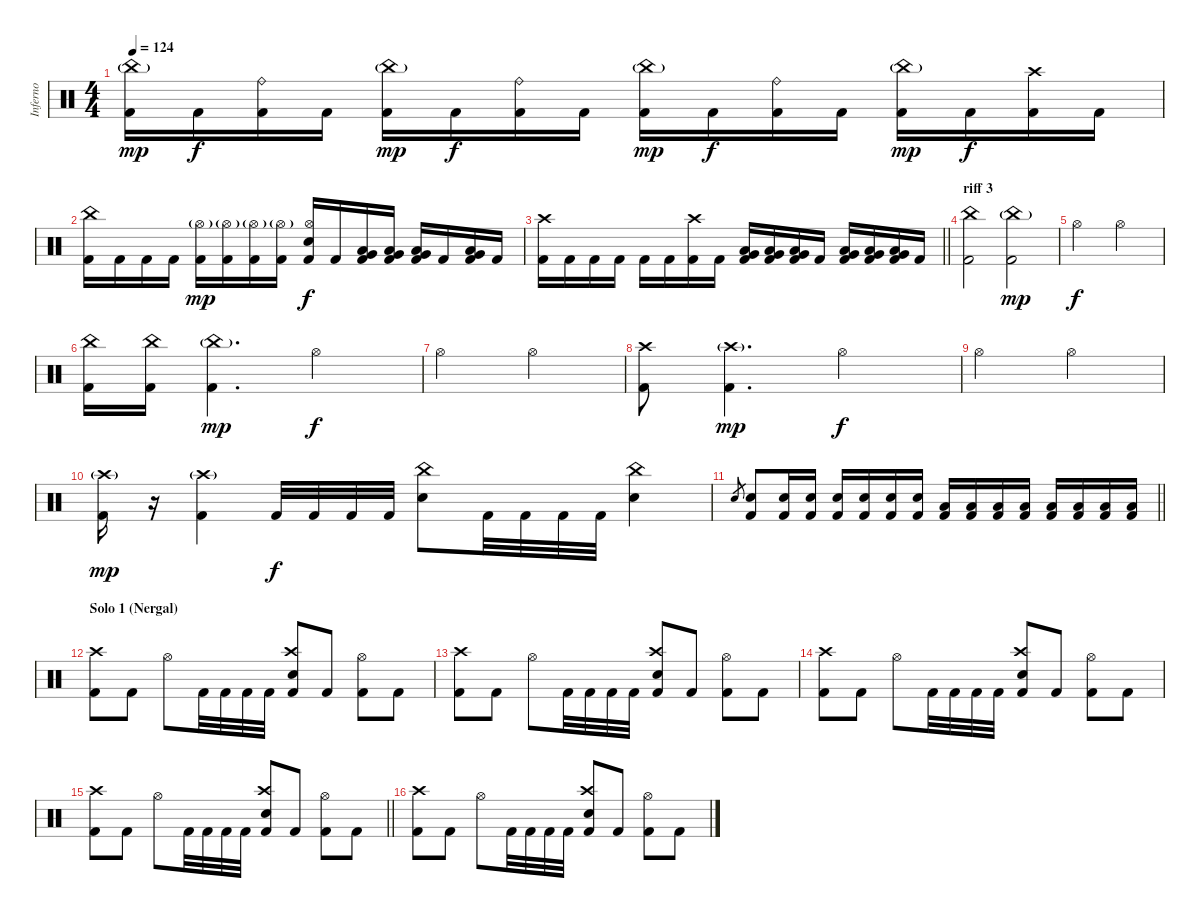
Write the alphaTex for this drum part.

\track ("Inferno" "Inferno") {instrument percussion}
\staff {score}
\articulation defaults
\ts (4 4)
\tempo 124
\clef neutral
\ks c
("China (hit)"{g} "Kick (hit) 2").16{dy mp} "Kick (hit) 2".16{dy f} ("Ride (bell)" "Kick (hit) 2").16 "Kick (hit) 2".16 ("China (hit)"{g} "Kick (hit) 2").16{dy mp} "Kick (hit) 2".16{dy f} ("Ride (bell)" "Kick (hit) 2").16 "Kick (hit) 2".16 ("China (hit)"{g} "Kick (hit) 2").16{dy mp} "Kick (hit) 2".16{dy f} ("Ride (bell)" "Kick (hit) 2").16 "Kick (hit) 2".16 ("China (hit)"{g} "Kick (hit) 2").16{dy mp} "Kick (hit) 2".16{dy f} ("Crash high (hit)" "Kick (hit) 2").16 "Kick (hit) 2".16 |
("China (hit)" "Kick (hit) 2").16 "Kick (hit) 2".16 "Kick (hit) 2".16 "Kick (hit) 2".16 ("Hi-Hat (open)"{g} "Kick (hit) 2").16{dy mp} ("Hi-Hat (open)"{g} "Kick (hit) 2").16 ("Hi-Hat (open)"{g} "Kick (hit) 2").16 ("Hi-Hat (open)"{g} "Kick (hit) 2").16 ("Hi-Hat (open)" "Electric Snare (hit)" "Kick (hit) 2").16{dy f} "Kick (hit) 2".16 ("Very Low Tom (hit)" "Low Tom (hit)" "Kick (hit) 2").16 ("Very Low Tom (hit)" "Low Tom (hit)" "Kick (hit) 2").16 ("Very Low Tom (hit)" "Low Tom (hit)" "Kick (hit) 2").16 "Kick (hit) 2".16 ("Very Low Tom (hit)" "Low Tom (hit)" "Kick (hit) 2").16 "Kick (hit) 2".16 |
\barLineRight lightlight
("Crash high (hit)" "Kick (hit) 2").16 "Kick (hit) 2".16 "Kick (hit) 2".16 "Kick (hit) 2".16 "Kick (hit) 2".16 "Kick (hit) 2".16 ("Crash high (hit)" "Kick (hit) 2").16 "Kick (hit) 2".16 ("Very Low Tom (hit)" "Low Tom (hit)" "Kick (hit) 2").16 ("Very Low Tom (hit)" "Low Tom (hit)" "Kick (hit) 2").16 ("Very Low Tom (hit)" "Low Tom (hit)" "Kick (hit) 2").16 "Kick (hit) 2".16 ("Very Low Tom (hit)" "Low Tom (hit)" "Kick (hit) 2").16 ("Very Low Tom (hit)" "Low Tom (hit)" "Kick (hit) 2").16 ("Very Low Tom (hit)" "Low Tom (hit)" "Kick (hit) 2").16 "Kick (hit) 2".16 |
\section ("" "riff 3")
("China (hit)" "Kick (hit) 2").2 ("China (hit)"{g} "Kick (hit) 2").2{dy mp} |
"Hi-Hat (open)".2{dy f} "Hi-Hat (open)".2 |
("China (hit)" "Kick (hit) 2").16 ("China (hit)" "Kick (hit) 2").16 ("China (hit)"{g} "Kick (hit) 2").4{d dy mp} "Hi-Hat (open)".2{dy f} |
"Hi-Hat (open)".2 "Hi-Hat (open)".2 |
("Crash high (hit)" "Kick (hit) 2").8 ("Crash high (hit)"{g} "Kick (hit) 2").4{d dy mp} "Hi-Hat (open)".2{dy f} |
"Hi-Hat (open)".2 "Hi-Hat (open)".2 |
("Crash high (hit)"{g} "Kick (hit) 2").16{dy mp} r.16 ("Crash high (hit)"{g} "Kick (hit) 2").4 "Kick (hit) 2".32{dy f} "Kick (hit) 2".32 "Kick (hit) 2".32 "Kick (hit) 2".32 ("China (hit)" "Electric Snare (hit)").8 "Kick (hit) 2".32 "Kick (hit) 2".32 "Kick (hit) 2".32 "Kick (hit) 2".32 ("China (hit)" "Electric Snare (hit)").4 |
\barLineRight lightlight "Electric Snare (hit)".8{gr}
("Electric Snare (hit)" "Kick (hit) 2").8 ("Electric Snare (hit)" "Kick (hit) 2").16 ("Electric Snare (hit)" "Kick (hit) 2").16 ("Electric Snare (hit)" "Kick (hit) 2").16 ("Electric Snare (hit)" "Kick (hit) 2").16 ("Electric Snare (hit)" "Kick (hit) 2").16 ("Electric Snare (hit)" "Kick (hit) 2").16 ("Low Tom (hit)" "Kick (hit) 2").16 ("Low Tom (hit)" "Kick (hit) 2").16 ("Low Tom (hit)" "Kick (hit) 2").16 ("Low Tom (hit)" "Kick (hit) 2").16 ("Low Floor Tom (hit)" "Kick (hit) 2").16 ("Low Floor Tom (hit)" "Kick (hit) 2").16 ("Low Floor Tom (hit)" "Kick (hit) 2").16 ("Low Floor Tom (hit)" "Kick (hit) 2").16 |
\section ("" "Solo 1 (Nergal)")
("Crash high (hit)" "Kick (hit) 2").8 "Kick (hit) 2".8 "Hi-Hat (open)".8 "Kick (hit) 2".32 "Kick (hit) 2".32 "Kick (hit) 2".32 "Kick (hit) 2".32 ("Crash high (hit)" "Electric Snare (hit)" "Kick (hit) 2").8 "Kick (hit) 2".8 ("Hi-Hat (open)" "Kick (hit) 2").8 "Kick (hit) 2".8 |
("Crash high (hit)" "Kick (hit) 2").8 "Kick (hit) 2".8 "Hi-Hat (open)".8 "Kick (hit) 2".32 "Kick (hit) 2".32 "Kick (hit) 2".32 "Kick (hit) 2".32 ("Crash high (hit)" "Electric Snare (hit)" "Kick (hit) 2").8 "Kick (hit) 2".8 ("Hi-Hat (open)" "Kick (hit) 2").8 "Kick (hit) 2".8 |
("Crash high (hit)" "Kick (hit) 2").8 "Kick (hit) 2".8 "Hi-Hat (open)".8 "Kick (hit) 2".32 "Kick (hit) 2".32 "Kick (hit) 2".32 "Kick (hit) 2".32 ("Crash high (hit)" "Electric Snare (hit)" "Kick (hit) 2").8 "Kick (hit) 2".8 ("Hi-Hat (open)" "Kick (hit) 2").8 "Kick (hit) 2".8 |
\barLineRight lightlight
("Crash high (hit)" "Kick (hit) 2").8 "Kick (hit) 2".8 "Hi-Hat (open)".8 "Kick (hit) 2".32 "Kick (hit) 2".32 "Kick (hit) 2".32 "Kick (hit) 2".32 ("Crash high (hit)" "Electric Snare (hit)" "Kick (hit) 2").8 "Kick (hit) 2".8 ("Hi-Hat (open)" "Kick (hit) 2").8 "Kick (hit) 2".8 |
("Crash high (hit)" "Kick (hit) 2").8 "Kick (hit) 2".8 "Hi-Hat (open)".8 "Kick (hit) 2".32 "Kick (hit) 2".32 "Kick (hit) 2".32 "Kick (hit) 2".32 ("Crash high (hit)" "Electric Snare (hit)" "Kick (hit) 2").8 "Kick (hit) 2".8 ("Hi-Hat (open)" "Kick (hit) 2").8 "Kick (hit) 2".8
